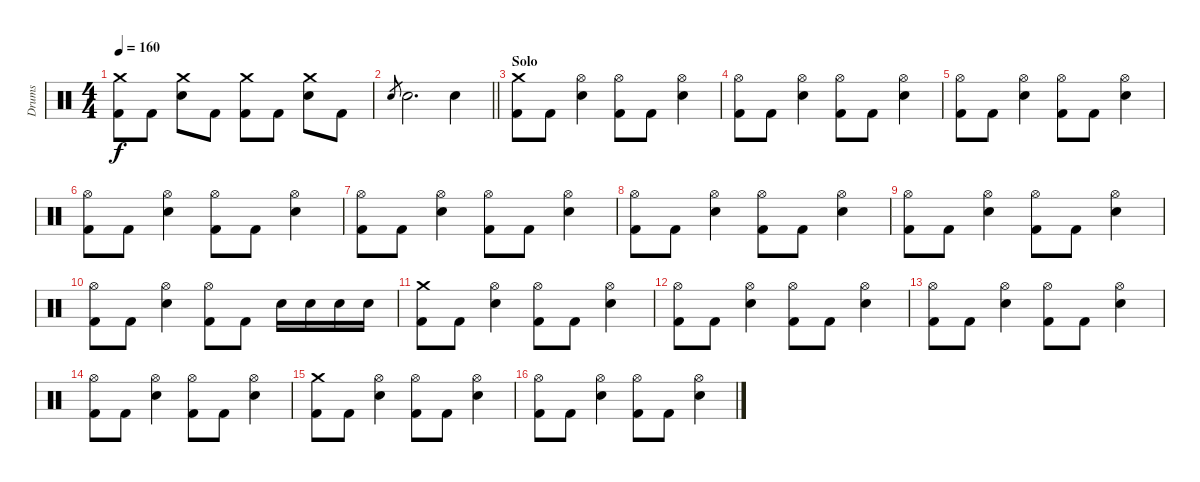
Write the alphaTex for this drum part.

\track ("Drums" "Drums") {instrument percussion}
\staff {score}
\articulation defaults
\ts (4 4)
\tempo 160
\clef neutral
\ks c
("Crash medium (hit)" "Kick (hit) 2").8{dy f} "Kick (hit) 2".8 ("Crash medium (hit)" "Electric Snare (hit)").8 "Kick (hit) 2".8 ("Crash medium (hit)" "Kick (hit) 2").8 "Kick (hit) 2".8 ("Crash medium (hit)" "Electric Snare (hit)").8 "Kick (hit) 2".8 |
\barLineRight lightlight "Electric Snare (hit)".8{gr} "Electric Snare (hit)".2{d} "Electric Snare (hit)".4
|
\section ("" "Solo")
("Crash medium (hit)" "Kick (hit) 2").8 "Kick (hit) 2".8 ("Hi-Hat (open)" "Electric Snare (hit)").4 ("Hi-Hat (open)" "Kick (hit) 2").8 "Kick (hit) 2".8 ("Hi-Hat (open)" "Electric Snare (hit)").4 |
("Hi-Hat (open)" "Kick (hit) 2").8 "Kick (hit) 2".8 ("Hi-Hat (open)" "Electric Snare (hit)").4 ("Hi-Hat (open)" "Kick (hit) 2").8 "Kick (hit) 2".8 ("Hi-Hat (open)" "Electric Snare (hit)").4 |
("Hi-Hat (open)" "Kick (hit) 2").8 "Kick (hit) 2".8 ("Hi-Hat (open)" "Electric Snare (hit)").4 ("Hi-Hat (open)" "Kick (hit) 2").8 "Kick (hit) 2".8 ("Hi-Hat (open)" "Electric Snare (hit)").4 |
("Hi-Hat (open)" "Kick (hit) 2").8 "Kick (hit) 2".8 ("Hi-Hat (open)" "Electric Snare (hit)").4 ("Hi-Hat (open)" "Kick (hit) 2").8 "Kick (hit) 2".8 ("Hi-Hat (open)" "Electric Snare (hit)").4 |
("Hi-Hat (open)" "Kick (hit) 2").8 "Kick (hit) 2".8 ("Hi-Hat (open)" "Electric Snare (hit)").4 ("Hi-Hat (open)" "Kick (hit) 2").8 "Kick (hit) 2".8 ("Hi-Hat (open)" "Electric Snare (hit)").4 |
("Hi-Hat (open)" "Kick (hit) 2").8 "Kick (hit) 2".8 ("Hi-Hat (open)" "Electric Snare (hit)").4 ("Hi-Hat (open)" "Kick (hit) 2").8 "Kick (hit) 2".8 ("Hi-Hat (open)" "Electric Snare (hit)").4 |
("Hi-Hat (open)" "Kick (hit) 2").8 "Kick (hit) 2".8 ("Hi-Hat (open)" "Electric Snare (hit)").4 ("Hi-Hat (open)" "Kick (hit) 2").8 "Kick (hit) 2".8 ("Hi-Hat (open)" "Electric Snare (hit)").4 |
("Hi-Hat (open)" "Kick (hit) 2").8 "Kick (hit) 2".8 ("Hi-Hat (open)" "Electric Snare (hit)").4 ("Hi-Hat (open)" "Kick (hit) 2").8 "Kick (hit) 2".8 "Electric Snare (hit)".16 "Electric Snare (hit)".16 "Electric Snare (hit)".16 "Electric Snare (hit)".16 |
("Crash medium (hit)" "Kick (hit) 2").8 "Kick (hit) 2".8 ("Hi-Hat (open)" "Electric Snare (hit)").4 ("Hi-Hat (open)" "Kick (hit) 2").8 "Kick (hit) 2".8 ("Hi-Hat (open)" "Electric Snare (hit)").4 |
("Hi-Hat (open)" "Kick (hit) 2").8 "Kick (hit) 2".8 ("Hi-Hat (open)" "Electric Snare (hit)").4 ("Hi-Hat (open)" "Kick (hit) 2").8 "Kick (hit) 2".8 ("Hi-Hat (open)" "Electric Snare (hit)").4 |
("Hi-Hat (open)" "Kick (hit) 2").8 "Kick (hit) 2".8 ("Hi-Hat (open)" "Electric Snare (hit)").4 ("Hi-Hat (open)" "Kick (hit) 2").8 "Kick (hit) 2".8 ("Hi-Hat (open)" "Electric Snare (hit)").4 |
("Hi-Hat (open)" "Kick (hit) 2").8 "Kick (hit) 2".8 ("Hi-Hat (open)" "Electric Snare (hit)").4 ("Hi-Hat (open)" "Kick (hit) 2").8 "Kick (hit) 2".8 ("Hi-Hat (open)" "Electric Snare (hit)").4 |
("Crash medium (hit)" "Kick (hit) 2").8 "Kick (hit) 2".8 ("Hi-Hat (open)" "Electric Snare (hit)").4 ("Hi-Hat (open)" "Kick (hit) 2").8 "Kick (hit) 2".8 ("Hi-Hat (open)" "Electric Snare (hit)").4 |
("Hi-Hat (open)" "Kick (hit) 2").8 "Kick (hit) 2".8 ("Hi-Hat (open)" "Electric Snare (hit)").4 ("Hi-Hat (open)" "Kick (hit) 2").8 "Kick (hit) 2".8 ("Hi-Hat (open)" "Electric Snare (hit)").4
